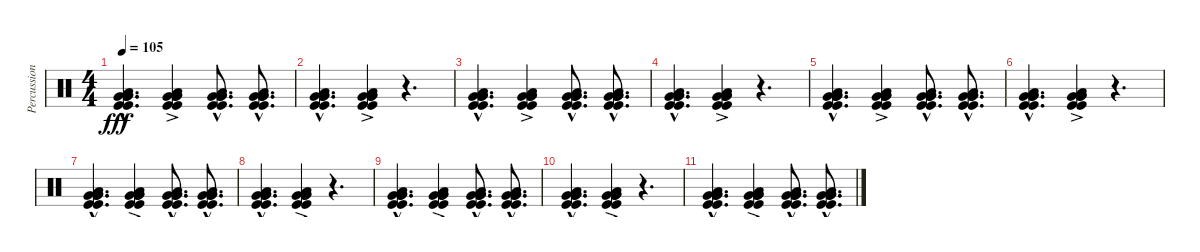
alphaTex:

\track ("Percussions" "Percussion") {instrument percussion}
\staff {score}
\articulation defaults
\ts (4 4)
\tempo 105
\clef neutral
\ks c
("Very Low Tom (hit)"{hac} "Very Low Tom (hit)"{hac} "Very Low Tom (hit)"{hac} "Kick (hit)"{hac} "Low Floor Tom (hit)"{hac} "Kick (hit)"{hac}).4{d dy fff volume 16} ("Very Low Tom (hit)"{ac} "Very Low Tom (hit)"{ac} "Very Low Tom (hit)"{ac} "Kick (hit)"{ac} "Low Floor Tom (hit)"{ac} "Kick (hit)"{ac}).4{volume 16} ("Very Low Tom (hit)"{hac} "Very Low Tom (hit)"{hac} "Very Low Tom (hit)"{hac} "Kick (hit)"{hac} "Low Floor Tom (hit)"{hac} "Kick (hit)"{hac}).8{d volume 16} ("Very Low Tom (hit)"{hac} "Very Low Tom (hit)"{hac} "Very Low Tom (hit)"{hac} "Kick (hit)"{hac} "Low Floor Tom (hit)"{hac} "Kick (hit)"{hac}).8{d volume 16} |
("Very Low Tom (hit)"{hac} "Very Low Tom (hit)"{hac} "Very Low Tom (hit)"{hac} "Kick (hit)"{hac} "Low Floor Tom (hit)"{hac} "Kick (hit)"{hac}).4{d volume 16} ("Very Low Tom (hit)"{ac} "Very Low Tom (hit)"{ac} "Very Low Tom (hit)"{ac} "Kick (hit)"{ac} "Low Floor Tom (hit)"{ac} "Kick (hit)"{ac}).4{volume 16} r.4{d} |
("Very Low Tom (hit)"{hac} "Very Low Tom (hit)"{hac} "Very Low Tom (hit)"{hac} "Kick (hit)"{hac} "Low Floor Tom (hit)"{hac} "Kick (hit)"{hac}).4{d volume 16} ("Very Low Tom (hit)"{ac} "Very Low Tom (hit)"{ac} "Very Low Tom (hit)"{ac} "Kick (hit)"{ac} "Low Floor Tom (hit)"{ac} "Kick (hit)"{ac}).4{volume 16} ("Very Low Tom (hit)"{hac} "Very Low Tom (hit)"{hac} "Very Low Tom (hit)"{hac} "Kick (hit)"{hac} "Low Floor Tom (hit)"{hac} "Kick (hit)"{hac}).8{d volume 16} ("Very Low Tom (hit)"{hac} "Very Low Tom (hit)"{hac} "Very Low Tom (hit)"{hac} "Kick (hit)"{hac} "Low Floor Tom (hit)"{hac} "Kick (hit)"{hac}).8{d volume 16} |
("Very Low Tom (hit)"{hac} "Very Low Tom (hit)"{hac} "Very Low Tom (hit)"{hac} "Kick (hit)"{hac} "Low Floor Tom (hit)"{hac} "Kick (hit)"{hac}).4{d volume 16} ("Very Low Tom (hit)"{ac} "Very Low Tom (hit)"{ac} "Very Low Tom (hit)"{ac} "Kick (hit)"{ac} "Low Floor Tom (hit)"{ac} "Kick (hit)"{ac}).4{volume 16} r.4{d} |
("Very Low Tom (hit)"{hac} "Very Low Tom (hit)"{hac} "Very Low Tom (hit)"{hac} "Kick (hit)"{hac} "Low Floor Tom (hit)"{hac} "Kick (hit)"{hac}).4{d volume 16} ("Very Low Tom (hit)"{ac} "Very Low Tom (hit)"{ac} "Very Low Tom (hit)"{ac} "Kick (hit)"{ac} "Low Floor Tom (hit)"{ac} "Kick (hit)"{ac}).4{volume 16} ("Very Low Tom (hit)"{hac} "Very Low Tom (hit)"{hac} "Very Low Tom (hit)"{hac} "Kick (hit)"{hac} "Low Floor Tom (hit)"{hac} "Kick (hit)"{hac}).8{d volume 16} ("Very Low Tom (hit)"{hac} "Very Low Tom (hit)"{hac} "Very Low Tom (hit)"{hac} "Kick (hit)"{hac} "Low Floor Tom (hit)"{hac} "Kick (hit)"{hac}).8{d volume 16} |
("Very Low Tom (hit)"{hac} "Very Low Tom (hit)"{hac} "Very Low Tom (hit)"{hac} "Kick (hit)"{hac} "Low Floor Tom (hit)"{hac} "Kick (hit)"{hac}).4{d volume 16} ("Very Low Tom (hit)"{ac} "Very Low Tom (hit)"{ac} "Very Low Tom (hit)"{ac} "Kick (hit)"{ac} "Low Floor Tom (hit)"{ac} "Kick (hit)"{ac}).4{volume 16} r.4{d} |
("Very Low Tom (hit)"{hac} "Very Low Tom (hit)"{hac} "Very Low Tom (hit)"{hac} "Kick (hit)"{hac} "Low Floor Tom (hit)"{hac} "Kick (hit)"{hac}).4{d volume 16} ("Very Low Tom (hit)"{ac} "Very Low Tom (hit)"{ac} "Very Low Tom (hit)"{ac} "Kick (hit)"{ac} "Low Floor Tom (hit)"{ac} "Kick (hit)"{ac}).4{volume 16} ("Very Low Tom (hit)"{hac} "Very Low Tom (hit)"{hac} "Very Low Tom (hit)"{hac} "Kick (hit)"{hac} "Low Floor Tom (hit)"{hac} "Kick (hit)"{hac}).8{d volume 16} ("Very Low Tom (hit)"{hac} "Very Low Tom (hit)"{hac} "Very Low Tom (hit)"{hac} "Kick (hit)"{hac} "Low Floor Tom (hit)"{hac} "Kick (hit)"{hac}).8{d volume 16} |
("Very Low Tom (hit)"{hac} "Very Low Tom (hit)"{hac} "Very Low Tom (hit)"{hac} "Kick (hit)"{hac} "Low Floor Tom (hit)"{hac} "Kick (hit)"{hac}).4{d volume 16} ("Very Low Tom (hit)"{ac} "Very Low Tom (hit)"{ac} "Very Low Tom (hit)"{ac} "Kick (hit)"{ac} "Low Floor Tom (hit)"{ac} "Kick (hit)"{ac}).4{volume 16} r.4{d} |
("Very Low Tom (hit)"{hac} "Very Low Tom (hit)"{hac} "Very Low Tom (hit)"{hac} "Kick (hit)"{hac} "Low Floor Tom (hit)"{hac} "Kick (hit)"{hac}).4{d volume 16} ("Very Low Tom (hit)"{ac} "Very Low Tom (hit)"{ac} "Very Low Tom (hit)"{ac} "Kick (hit)"{ac} "Low Floor Tom (hit)"{ac} "Kick (hit)"{ac}).4{volume 16} ("Very Low Tom (hit)"{hac} "Very Low Tom (hit)"{hac} "Very Low Tom (hit)"{hac} "Kick (hit)"{hac} "Low Floor Tom (hit)"{hac} "Kick (hit)"{hac}).8{d volume 16} ("Very Low Tom (hit)"{hac} "Very Low Tom (hit)"{hac} "Very Low Tom (hit)"{hac} "Kick (hit)"{hac} "Low Floor Tom (hit)"{hac} "Kick (hit)"{hac}).8{d volume 16} |
("Very Low Tom (hit)"{hac} "Very Low Tom (hit)"{hac} "Very Low Tom (hit)"{hac} "Kick (hit)"{hac} "Low Floor Tom (hit)"{hac} "Kick (hit)"{hac}).4{d volume 16} ("Very Low Tom (hit)"{ac} "Very Low Tom (hit)"{ac} "Very Low Tom (hit)"{ac} "Kick (hit)"{ac} "Low Floor Tom (hit)"{ac} "Kick (hit)"{ac}).4{volume 16} r.4{d} |
("Very Low Tom (hit)"{hac} "Very Low Tom (hit)"{hac} "Very Low Tom (hit)"{hac} "Kick (hit)"{hac} "Low Floor Tom (hit)"{hac} "Kick (hit)"{hac}).4{d volume 16} ("Very Low Tom (hit)"{ac} "Very Low Tom (hit)"{ac} "Very Low Tom (hit)"{ac} "Kick (hit)"{ac} "Low Floor Tom (hit)"{ac} "Kick (hit)"{ac}).4{volume 16} ("Very Low Tom (hit)"{hac} "Very Low Tom (hit)"{hac} "Very Low Tom (hit)"{hac} "Kick (hit)"{hac} "Low Floor Tom (hit)"{hac} "Kick (hit)"{hac}).8{d volume 16} ("Very Low Tom (hit)"{hac} "Very Low Tom (hit)"{hac} "Very Low Tom (hit)"{hac} "Kick (hit)"{hac} "Low Floor Tom (hit)"{hac} "Kick (hit)"{hac}).8{d volume 16}
